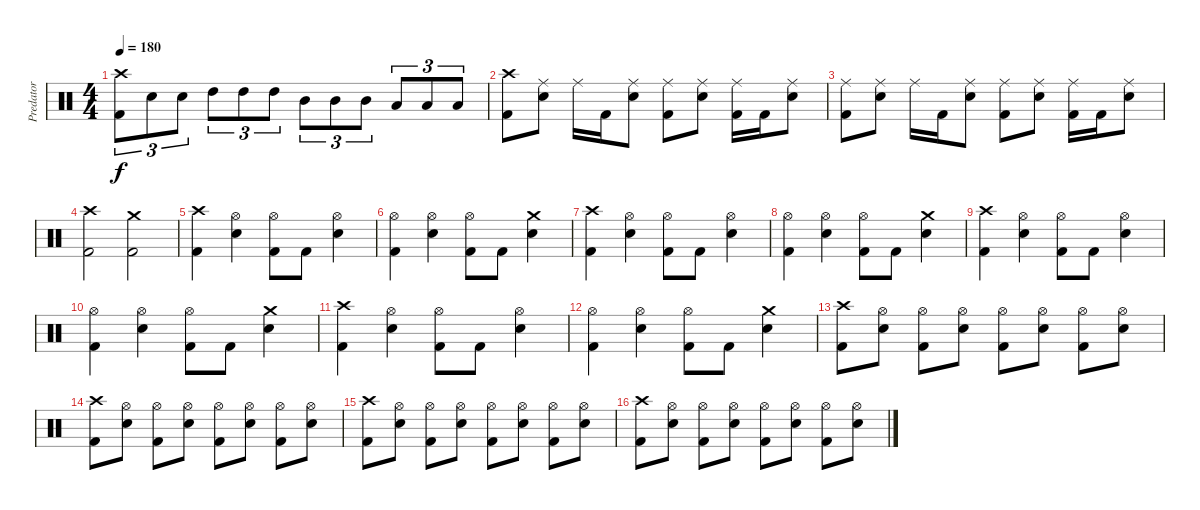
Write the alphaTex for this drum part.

\track ("Predator" "Predator") {instrument percussion}
\staff {score}
\articulation defaults
\ts (4 4)
\tempo 180
\clef neutral
\ks c
("Kick (hit) 2" "Crash high (hit)").8{tu (3 2) dy f} "Electric Snare (hit)".8{tu (3 2)} "Electric Snare (hit)".8{tu (3 2)} "High Tom (hit)".8{tu (3 2)} "High Tom (hit)".8{tu (3 2)} "High Tom (hit)".8{tu (3 2)} "Mid Tom (hit)".8{tu (3 2)} "Mid Tom (hit)".8{tu (3 2)} "Mid Tom (hit)".8{tu (3 2)} "Low Tom (hit)".8{tu (3 2)} "Low Tom (hit)".8{tu (3 2)} "Low Tom (hit)".8{tu (3 2)} |
("Kick (hit) 2" "Crash high (hit)").8 ("Electric Snare (hit)" "Ride (middle)").8 "Ride (middle)".16 "Kick (hit) 2".16 ("Electric Snare (hit)" "Ride (middle)").8 ("Kick (hit) 2" "Ride (middle)").8 ("Electric Snare (hit)" "Ride (middle)").8 ("Kick (hit) 2" "Ride (middle)").16 "Kick (hit) 2".16 ("Electric Snare (hit)" "Ride (middle)").8 |
("Kick (hit) 2" "Ride (middle)").8 ("Electric Snare (hit)" "Ride (middle)").8 "Ride (middle)".16 "Kick (hit) 2".16 ("Electric Snare (hit)" "Ride (middle)").8 ("Kick (hit) 2" "Ride (middle)").8 ("Electric Snare (hit)" "Ride (middle)").8 ("Kick (hit) 2" "Ride (middle)").16 "Kick (hit) 2".16 ("Electric Snare (hit)" "Ride (middle)").8 |
("Kick (hit) 2" "Crash high (hit)").2 ("Kick (hit) 2" "Crash medium (hit)").2 |
("Kick (hit) 2" "Crash high (hit)").4 ("Electric Snare (hit)" "Hi-Hat (open)").4 ("Kick (hit) 2" "Hi-Hat (open)").8 "Kick (hit) 2".8 ("Electric Snare (hit)" "Hi-Hat (open)").4 |
("Kick (hit) 2" "Hi-Hat (open)").4 ("Electric Snare (hit)" "Hi-Hat (open)").4 ("Kick (hit) 2" "Hi-Hat (open)").8 "Kick (hit) 2".8 ("Electric Snare (hit)" "Crash medium (hit)").4 |
("Kick (hit) 2" "Crash high (hit)").4 ("Electric Snare (hit)" "Hi-Hat (open)").4 ("Kick (hit) 2" "Hi-Hat (open)").8 "Kick (hit) 2".8 ("Electric Snare (hit)" "Hi-Hat (open)").4 |
("Kick (hit) 2" "Hi-Hat (open)").4 ("Electric Snare (hit)" "Hi-Hat (open)").4 ("Kick (hit) 2" "Hi-Hat (open)").8 "Kick (hit) 2".8 ("Electric Snare (hit)" "Crash medium (hit)").4 |
("Kick (hit) 2" "Crash high (hit)").4 ("Electric Snare (hit)" "Hi-Hat (open)").4 ("Kick (hit) 2" "Hi-Hat (open)").8 "Kick (hit) 2".8 ("Electric Snare (hit)" "Hi-Hat (open)").4 |
("Kick (hit) 2" "Hi-Hat (open)").4 ("Electric Snare (hit)" "Hi-Hat (open)").4 ("Kick (hit) 2" "Hi-Hat (open)").8 "Kick (hit) 2".8 ("Electric Snare (hit)" "Crash medium (hit)").4 |
("Kick (hit) 2" "Crash high (hit)").4 ("Electric Snare (hit)" "Hi-Hat (open)").4 ("Kick (hit) 2" "Hi-Hat (open)").8 "Kick (hit) 2".8 ("Electric Snare (hit)" "Hi-Hat (open)").4 |
("Kick (hit) 2" "Hi-Hat (open)").4 ("Electric Snare (hit)" "Hi-Hat (open)").4 ("Kick (hit) 2" "Hi-Hat (open)").8 "Kick (hit) 2".8 ("Electric Snare (hit)" "Crash medium (hit)").4 |
("Kick (hit) 2" "Crash high (hit)").8 ("Electric Snare (hit)" "Hi-Hat (open)").8 ("Kick (hit) 2" "Hi-Hat (open)").8 ("Electric Snare (hit)" "Hi-Hat (open)").8 ("Kick (hit) 2" "Hi-Hat (open)").8 ("Electric Snare (hit)" "Hi-Hat (open)").8 ("Kick (hit) 2" "Hi-Hat (open)").8 ("Electric Snare (hit)" "Hi-Hat (open)").8 |
("Kick (hit) 2" "Crash high (hit)").8 ("Electric Snare (hit)" "Hi-Hat (open)").8 ("Kick (hit) 2" "Hi-Hat (open)").8 ("Electric Snare (hit)" "Hi-Hat (open)").8 ("Kick (hit) 2" "Hi-Hat (open)").8 ("Electric Snare (hit)" "Hi-Hat (open)").8 ("Kick (hit) 2" "Hi-Hat (open)").8 ("Electric Snare (hit)" "Hi-Hat (open)").8 |
("Kick (hit) 2" "Crash high (hit)").8 ("Electric Snare (hit)" "Hi-Hat (open)").8 ("Kick (hit) 2" "Hi-Hat (open)").8 ("Electric Snare (hit)" "Hi-Hat (open)").8 ("Kick (hit) 2" "Hi-Hat (open)").8 ("Electric Snare (hit)" "Hi-Hat (open)").8 ("Kick (hit) 2" "Hi-Hat (open)").8 ("Electric Snare (hit)" "Hi-Hat (open)").8 |
("Kick (hit) 2" "Crash high (hit)").8 ("Electric Snare (hit)" "Hi-Hat (open)").8 ("Kick (hit) 2" "Hi-Hat (open)").8 ("Electric Snare (hit)" "Hi-Hat (open)").8 ("Kick (hit) 2" "Hi-Hat (open)").8 ("Electric Snare (hit)" "Hi-Hat (open)").8 ("Kick (hit) 2" "Hi-Hat (open)").8 ("Electric Snare (hit)" "Hi-Hat (open)").8
